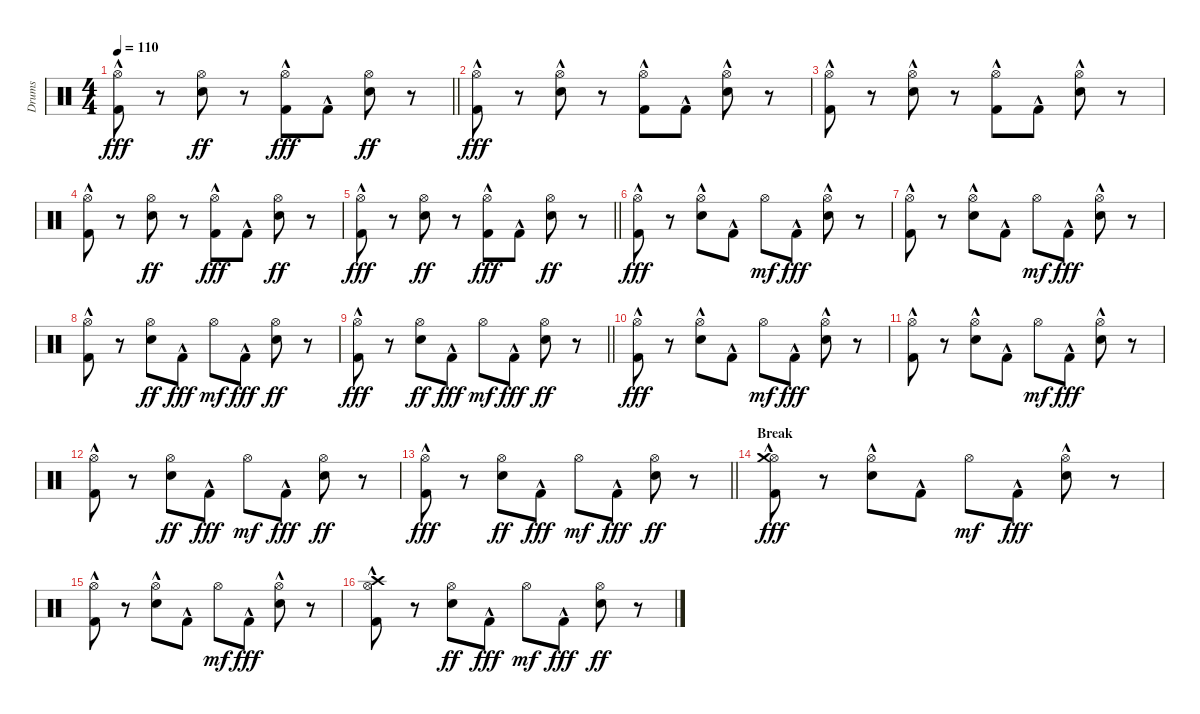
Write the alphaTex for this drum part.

\track ("Drums" "Drums") {instrument percussion}
\staff {score}
\articulation defaults
\ts (4 4)
\tempo 110
\clef neutral
\barLineRight lightlight
\ks c
("Hi-Hat (open)" "Kick (hit) 2"{hac}).8{dy fff} r.8 ("Hi-Hat (open)" "Snare (hit) 2").8{dy ff} r.8 ("Hi-Hat (open)" "Kick (hit) 2"{hac}).8{dy fff} "Kick (hit) 2"{hac}.8 ("Hi-Hat (open)" "Snare (hit) 2").8{dy ff} r.8 |
("Hi-Hat (open)" "Kick (hit) 2"{hac}).8{dy fff} r.8 ("Hi-Hat (open)" "Snare (hit) 2"{hac}).8 r.8 ("Hi-Hat (open)" "Kick (hit) 2"{hac}).8 "Kick (hit) 2"{hac}.8 ("Hi-Hat (open)" "Snare (hit) 2"{hac}).8 r.8 |
("Hi-Hat (open)" "Kick (hit) 2"{hac}).8 r.8 ("Hi-Hat (open)" "Snare (hit) 2"{hac}).8 r.8 ("Hi-Hat (open)" "Kick (hit) 2"{hac}).8 "Kick (hit) 2"{hac}.8 ("Hi-Hat (open)" "Snare (hit) 2"{hac}).8 r.8 |
("Hi-Hat (open)" "Kick (hit) 2"{hac}).8 r.8 ("Hi-Hat (open)" "Snare (hit) 2").8{dy ff} r.8 ("Hi-Hat (open)" "Kick (hit) 2"{hac}).8{dy fff} "Kick (hit) 2"{hac}.8 ("Hi-Hat (open)" "Snare (hit) 2").8{dy ff} r.8 |
\barLineRight lightlight
("Hi-Hat (open)" "Kick (hit) 2"{hac}).8{dy fff} r.8 ("Hi-Hat (open)" "Snare (hit) 2").8{dy ff} r.8 ("Hi-Hat (open)" "Kick (hit) 2"{hac}).8{dy fff} "Kick (hit) 2"{hac}.8 ("Hi-Hat (open)" "Snare (hit) 2").8{dy ff} r.8 |
("Hi-Hat (open)" "Kick (hit) 2"{hac}).8{dy fff} r.8 ("Hi-Hat (open)" "Snare (hit) 2"{hac}).8 "Kick (hit) 2"{hac}.8 "Hi-Hat (open)".8{dy mf} "Kick (hit) 2"{hac}.8{dy fff} ("Hi-Hat (open)" "Snare (hit) 2"{hac}).8 r.8 |
("Hi-Hat (open)" "Kick (hit) 2"{hac}).8 r.8 ("Hi-Hat (open)" "Snare (hit) 2"{hac}).8 "Kick (hit) 2"{hac}.8 "Hi-Hat (open)".8{dy mf} "Kick (hit) 2"{hac}.8{dy fff} ("Hi-Hat (open)" "Snare (hit) 2"{hac}).8 r.8 |
("Hi-Hat (open)" "Kick (hit) 2"{hac}).8 r.8 ("Hi-Hat (open)" "Snare (hit) 2").8{dy ff} "Kick (hit) 2"{hac}.8{dy fff} "Hi-Hat (open)".8{dy mf} "Kick (hit) 2"{hac}.8{dy fff} ("Hi-Hat (open)" "Snare (hit) 2").8{dy ff} r.8 |
\barLineRight lightlight
("Hi-Hat (open)" "Kick (hit) 2"{hac}).8{dy fff} r.8 ("Hi-Hat (open)" "Snare (hit) 2").8{dy ff} "Kick (hit) 2"{hac}.8{dy fff} "Hi-Hat (open)".8{dy mf} "Kick (hit) 2"{hac}.8{dy fff} ("Hi-Hat (open)" "Snare (hit) 2").8{dy ff} r.8 |
("Hi-Hat (open)" "Kick (hit) 2"{hac}).8{dy fff} r.8 ("Hi-Hat (open)" "Snare (hit) 2"{hac}).8 "Kick (hit) 2"{hac}.8 "Hi-Hat (open)".8{dy mf} "Kick (hit) 2"{hac}.8{dy fff} ("Hi-Hat (open)" "Snare (hit) 2"{hac}).8 r.8 |
("Hi-Hat (open)" "Kick (hit) 2"{hac}).8 r.8 ("Hi-Hat (open)" "Snare (hit) 2"{hac}).8 "Kick (hit) 2"{hac}.8 "Hi-Hat (open)".8{dy mf} "Kick (hit) 2"{hac}.8{dy fff} ("Hi-Hat (open)" "Snare (hit) 2"{hac}).8 r.8 |
("Hi-Hat (open)" "Kick (hit) 2"{hac}).8 r.8 ("Hi-Hat (open)" "Snare (hit) 2").8{dy ff} "Kick (hit) 2"{hac}.8{dy fff} "Hi-Hat (open)".8{dy mf} "Kick (hit) 2"{hac}.8{dy fff} ("Hi-Hat (open)" "Snare (hit) 2").8{dy ff} r.8 |
\barLineRight lightlight
("Hi-Hat (open)" "Kick (hit) 2"{hac}).8{dy fff} r.8 ("Hi-Hat (open)" "Snare (hit) 2").8{dy ff} "Kick (hit) 2"{hac}.8{dy fff} "Hi-Hat (open)".8{dy mf} "Kick (hit) 2"{hac}.8{dy fff} ("Hi-Hat (open)" "Snare (hit) 2").8{dy ff} r.8 |
\section ("" "Break")
("Hi-Hat (open)" "Crash medium (hit)" "Kick (hit) 2"{hac}).8{dy fff} r.8 ("Hi-Hat (open)" "Snare (hit) 2"{hac}).8 "Kick (hit) 2"{hac}.8 "Hi-Hat (open)".8{dy mf} "Kick (hit) 2"{hac}.8{dy fff} ("Hi-Hat (open)" "Snare (hit) 2"{hac}).8 r.8 |
("Hi-Hat (open)" "Kick (hit) 2"{hac}).8 r.8 ("Hi-Hat (open)" "Snare (hit) 2"{hac}).8 "Kick (hit) 2"{hac}.8 "Hi-Hat (open)".8{dy mf} "Kick (hit) 2"{hac}.8{dy fff} ("Hi-Hat (open)" "Snare (hit) 2"{hac}).8 r.8 |
("Hi-Hat (open)" "Crash high (hit)" "Kick (hit) 2"{hac}).8 r.8 ("Hi-Hat (open)" "Snare (hit) 2").8{dy ff} "Kick (hit) 2"{hac}.8{dy fff} "Hi-Hat (open)".8{dy mf} "Kick (hit) 2"{hac}.8{dy fff} ("Hi-Hat (open)" "Snare (hit) 2").8{dy ff} r.8
